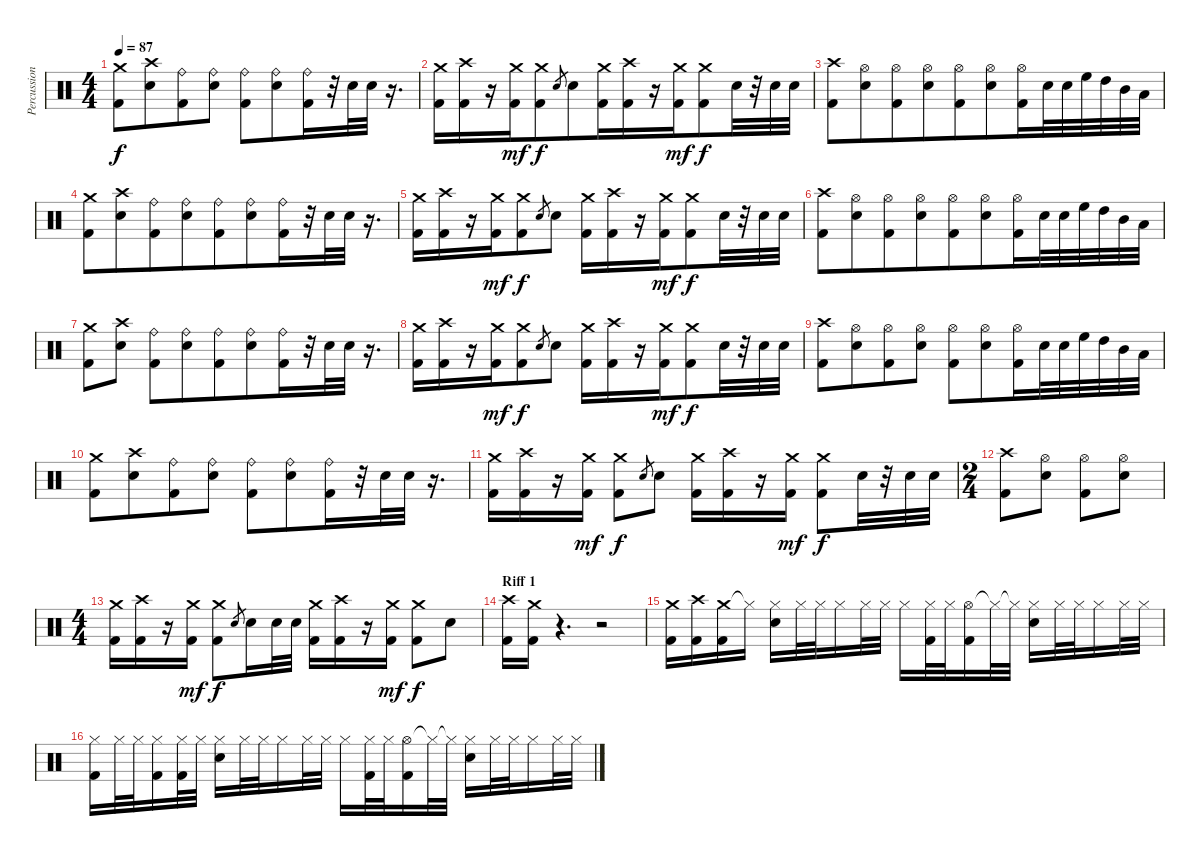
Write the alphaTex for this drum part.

\track ("Percussion" "Percussion") {instrument percussion}
\staff {score}
\articulation defaults
\ts (4 4)
\tempo 87
\clef neutral
\ks c
("Crash medium (hit)" "Kick (hit) 2").8{dy f beam merge} ("Crash high (hit)" "Electric Snare (hit)").8{beam merge} ("Ride (bell)" "Kick (hit) 2").8{beam merge} ("Ride (bell)" "Electric Snare (hit)").8 ("Ride (bell)" "Kick (hit) 2").8{beam merge} ("Ride (bell)" "Electric Snare (hit)").8{beam merge} ("Ride (bell)" "Kick (hit) 2").16{beam merge} r.32{beam merge} "Electric Snare (hit)".32{beam merge} "Electric Snare (hit)".32{beam merge} r.16{d} |
("Crash medium (hit)" "Kick (hit) 2").16{beam merge} ("Crash high (hit)" "Kick (hit) 2").16{beam merge} r.16{beam merge} ("Crash medium (hit)" "Kick (hit) 2").16{dy mf beam merge} ("Crash medium (hit)" "Kick (hit) 2").8{dy f} "Electric Snare (hit)".8{gr beam merge} "Electric Snare (hit)".8{beam merge} ("Crash medium (hit)" "Kick (hit) 2").16{beam merge} ("Crash high (hit)" "Kick (hit) 2").16 r.16{beam merge} ("Crash medium (hit)" "Kick (hit) 2").16{dy mf beam merge} ("Crash medium (hit)" "Kick (hit) 2").8{dy f beam merge} "Electric Snare (hit)".32{beam merge} r.32{beam merge} "Electric Snare (hit)".32{beam merge} "Electric Snare (hit)".32 |
("Crash high (hit)" "Kick (hit) 2").8{beam merge} ("Hi-Hat (open)" "Electric Snare (hit)").8{beam merge} ("Hi-Hat (open)" "Kick (hit) 2").8{beam merge} ("Hi-Hat (open)" "Electric Snare (hit)").8{beam merge} ("Hi-Hat (open)" "Kick (hit) 2").8{beam merge} ("Hi-Hat (open)" "Electric Snare (hit)").8{beam merge} ("Hi-Hat (open)" "Kick (hit) 2").16{beam merge} "Electric Snare (hit)".32{beam merge} "Electric Snare (hit)".32{beam merge} "High Floor Tom (hit)".32{beam merge} "High Tom (hit)".32{beam merge} "Mid Tom (hit)".32{beam merge} "Low Tom (hit)".32 |
("Crash medium (hit)" "Kick (hit) 2").8{beam merge} ("Crash high (hit)" "Electric Snare (hit)").8{beam merge} ("Ride (bell)" "Kick (hit) 2").8 ("Ride (bell)" "Electric Snare (hit)").8{beam merge} ("Ride (bell)" "Kick (hit) 2").8{beam merge} ("Ride (bell)" "Electric Snare (hit)").8{beam merge} ("Ride (bell)" "Kick (hit) 2").16{beam merge} r.32{beam merge} "Electric Snare (hit)".32{beam merge} "Electric Snare (hit)".32{beam merge} r.16{d} |
("Crash medium (hit)" "Kick (hit) 2").16{beam merge} ("Crash high (hit)" "Kick (hit) 2").16{beam merge} r.16{beam merge} ("Crash medium (hit)" "Kick (hit) 2").16{dy mf beam merge} ("Crash medium (hit)" "Kick (hit) 2").8{dy f} "Electric Snare (hit)".8{gr beam merge} "Electric Snare (hit)".8 ("Crash medium (hit)" "Kick (hit) 2").16 ("Crash high (hit)" "Kick (hit) 2").16{beam merge} r.16{beam merge} ("Crash medium (hit)" "Kick (hit) 2").16{dy mf beam merge} ("Crash medium (hit)" "Kick (hit) 2").8{dy f beam merge} "Electric Snare (hit)".32{beam merge} r.32{beam merge} "Electric Snare (hit)".32{beam merge} "Electric Snare (hit)".32 |
("Crash high (hit)" "Kick (hit) 2").8{beam merge} ("Hi-Hat (open)" "Electric Snare (hit)").8{beam merge} ("Hi-Hat (open)" "Kick (hit) 2").8{beam merge} ("Hi-Hat (open)" "Electric Snare (hit)").8{beam merge} ("Hi-Hat (open)" "Kick (hit) 2").8{beam merge} ("Hi-Hat (open)" "Electric Snare (hit)").8{beam merge} ("Hi-Hat (open)" "Kick (hit) 2").16{beam merge} "Electric Snare (hit)".32{beam merge} "Electric Snare (hit)".32{beam merge} "High Floor Tom (hit)".32{beam merge} "High Tom (hit)".32{beam merge} "Mid Tom (hit)".32{beam merge} "Low Tom (hit)".32 |
("Crash medium (hit)" "Kick (hit) 2").8{beam merge} ("Crash high (hit)" "Electric Snare (hit)").8 ("Ride (bell)" "Kick (hit) 2").8{beam merge} ("Ride (bell)" "Electric Snare (hit)").8{beam merge} ("Ride (bell)" "Kick (hit) 2").8{beam merge} ("Ride (bell)" "Electric Snare (hit)").8{beam merge} ("Ride (bell)" "Kick (hit) 2").16{beam merge} r.32{beam merge} "Electric Snare (hit)".32{beam merge} "Electric Snare (hit)".32 r.16{d} |
("Crash medium (hit)" "Kick (hit) 2").16 ("Crash high (hit)" "Kick (hit) 2").16{beam merge} r.16{beam merge} ("Crash medium (hit)" "Kick (hit) 2").16{dy mf beam merge} ("Crash medium (hit)" "Kick (hit) 2").8{dy f} "Electric Snare (hit)".8{gr beam merge} "Electric Snare (hit)".8 ("Crash medium (hit)" "Kick (hit) 2").16{beam merge} ("Crash high (hit)" "Kick (hit) 2").16{beam merge} r.16{beam merge} ("Crash medium (hit)" "Kick (hit) 2").16{dy mf beam merge} ("Crash medium (hit)" "Kick (hit) 2").8{dy f beam merge} "Electric Snare (hit)".32{beam merge} r.32{beam merge} "Electric Snare (hit)".32 "Electric Snare (hit)".32 |
("Crash high (hit)" "Kick (hit) 2").8{beam merge} ("Hi-Hat (open)" "Electric Snare (hit)").8{beam merge} ("Hi-Hat (open)" "Kick (hit) 2").8{beam merge} ("Hi-Hat (open)" "Electric Snare (hit)").8 ("Hi-Hat (open)" "Kick (hit) 2").8{beam merge} ("Hi-Hat (open)" "Electric Snare (hit)").8{beam merge} ("Hi-Hat (open)" "Kick (hit) 2").16{beam merge} "Electric Snare (hit)".32{beam merge} "Electric Snare (hit)".32{beam merge} "High Floor Tom (hit)".32{beam merge} "High Tom (hit)".32{beam merge} "Mid Tom (hit)".32 "Low Tom (hit)".32 |
("Crash medium (hit)" "Kick (hit) 2").8 ("Crash high (hit)" "Electric Snare (hit)").8{beam merge} ("Ride (bell)" "Kick (hit) 2").8{beam merge} ("Ride (bell)" "Electric Snare (hit)").8 ("Ride (bell)" "Kick (hit) 2").8{beam merge} ("Ride (bell)" "Electric Snare (hit)").8{beam merge} ("Ride (bell)" "Kick (hit) 2").16{beam merge} r.32{beam merge} "Electric Snare (hit)".32{beam merge} "Electric Snare (hit)".32{beam merge} r.16{d} |
("Crash medium (hit)" "Kick (hit) 2").16 ("Crash high (hit)" "Kick (hit) 2").16 r.16 ("Crash medium (hit)" "Kick (hit) 2").16{dy mf} ("Crash medium (hit)" "Kick (hit) 2").8{dy f} "Electric Snare (hit)".8{gr} "Electric Snare (hit)".8 ("Crash medium (hit)" "Kick (hit) 2").16 ("Crash high (hit)" "Kick (hit) 2").16 r.16 ("Crash medium (hit)" "Kick (hit) 2").16{dy mf} ("Crash medium (hit)" "Kick (hit) 2").8{dy f} "Electric Snare (hit)".32 r.32 "Electric Snare (hit)".32 "Electric Snare (hit)".32 |
\ts (2 4)
("Crash high (hit)" "Kick (hit) 2").8 ("Hi-Hat (open)" "Electric Snare (hit)").8 ("Hi-Hat (open)" "Kick (hit) 2").8 ("Hi-Hat (open)" "Electric Snare (hit)").8 |
\ts (4 4)
("Crash medium (hit)" "Kick (hit) 2").16 ("Crash high (hit)" "Kick (hit) 2").16 r.16 ("Crash medium (hit)" "Kick (hit) 2").16{dy mf} ("Crash medium (hit)" "Kick (hit) 2").8{dy f} "Electric Snare (hit)".8{gr} "Electric Snare (hit)".16 "Electric Snare (hit)".32 "Electric Snare (hit)".32 ("Crash medium (hit)" "Kick (hit) 2").16 ("Crash high (hit)" "Kick (hit) 2").16 r.16 ("Crash medium (hit)" "Kick (hit) 2").16{dy mf} ("Crash medium (hit)" "Kick (hit) 2").8{dy f} "Electric Snare (hit)".8 |
\section ("" "Riff 1")
("Crash high (hit)" "Kick (hit) 2").16 ("Crash medium (hit)" "Kick (hit) 2").16 r.4{d} r.2 |
("Crash medium (hit)" "Kick (hit) 2").16 ("Crash high (hit)" "Kick (hit) 2").16 ("Crash medium (hit)" "Kick (hit) 2").16 "Hi-Hat (closed)"{t}.16 ("Hi-Hat (closed)" "Electric Snare (hit)").16 "Hi-Hat (closed)".32 "Hi-Hat (closed)".32 "Hi-Hat (closed)".16 "Hi-Hat (closed)".32 "Hi-Hat (closed)".32 "Hi-Hat (closed)".16 ("Hi-Hat (closed)" "Kick (hit) 2").32 "Hi-Hat (closed)".32 ("Hi-Hat (open)" "Kick (hit) 2").16 "Hi-Hat (closed)"{t}.32 "Hi-Hat (closed)"{t}.32 ("Hi-Hat (closed)" "Electric Snare (hit)").16 "Hi-Hat (closed)".32 "Hi-Hat (closed)".32 "Hi-Hat (closed)".16 "Hi-Hat (closed)".32 "Hi-Hat (closed)".32 |
("Hi-Hat (closed)" "Kick (hit) 2").16 "Hi-Hat (closed)".32 "Hi-Hat (closed)".32 ("Hi-Hat (closed)" "Kick (hit) 2").16 ("Hi-Hat (closed)" "Kick (hit) 2").32 "Hi-Hat (closed)".32 ("Hi-Hat (closed)" "Electric Snare (hit)").16 "Hi-Hat (closed)".32 "Hi-Hat (closed)".32 "Hi-Hat (closed)".16 "Hi-Hat (closed)".32 "Hi-Hat (closed)".32 "Hi-Hat (closed)".16 ("Hi-Hat (closed)" "Kick (hit) 2").32 "Hi-Hat (closed)".32 ("Hi-Hat (open)" "Kick (hit) 2").16 "Hi-Hat (closed)"{t}.32 "Hi-Hat (closed)"{t}.32 ("Hi-Hat (closed)" "Electric Snare (hit)").16 "Hi-Hat (closed)".32 "Hi-Hat (closed)".32 "Hi-Hat (closed)".16 "Hi-Hat (closed)".32 "Hi-Hat (closed)".32
